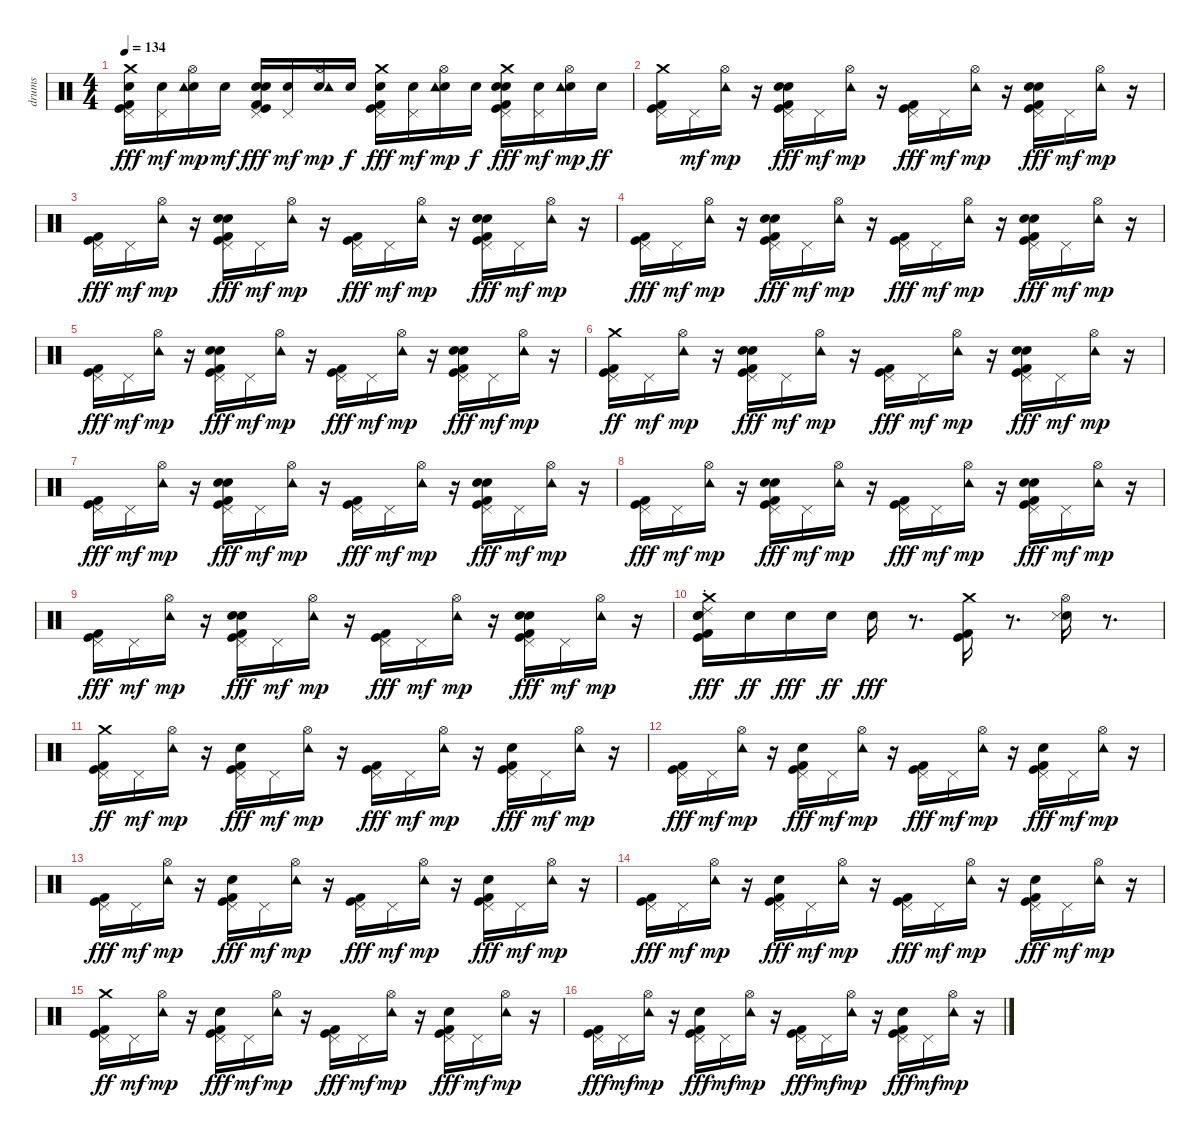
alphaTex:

\track ("drums" "drums") {instrument percussion}
\staff {score}
\articulation defaults
\ts (4 4)
\tempo 134
\clef neutral
\ks c
("Crash medium (hit)" "Electric Snare (hit)" "Kick (hit)" "Kick (hit) 2" "Pedal Hi-Hat (hit)").16{dy fff} ("Electric Snare (hit)" "Pedal Hi-Hat (hit)").16{dy mf} ("Electric Snare (hit)" "Hi-Hat (open)" "Tambourine (hit)").16{dy mp} "Electric Snare (hit)".16{dy mf} ("Electric Snare (hit)" "Kick (hit)" "Kick (hit) 2" "Hand Clap (hit)" "Pedal Hi-Hat (hit)").16{dy fff} ("Electric Snare (hit)" "Pedal Hi-Hat (hit)").16{dy mf} ("Electric Snare (hit)" "Hi-Hat (open)" "Tambourine (hit)").16{dy mp} "Electric Snare (hit)".16{dy f} ("Crash medium (hit)" "Electric Snare (hit)" "Kick (hit)" "Kick (hit) 2" "Pedal Hi-Hat (hit)").16{dy fff} ("Electric Snare (hit)" "Pedal Hi-Hat (hit)").16{dy mf} ("Electric Snare (hit)" "Hi-Hat (open)" "Tambourine (hit)").16{dy mp} "Electric Snare (hit)".16{dy f} ("Crash medium (hit)" "Electric Snare (hit)" "Kick (hit)" "Kick (hit) 2" "Hand Clap (hit)" "Pedal Hi-Hat (hit)").16{dy fff} ("Electric Snare (hit)" "Pedal Hi-Hat (hit)").16{dy mf} ("Electric Snare (hit)" "Hi-Hat (open)" "Tambourine (hit)").16{dy mp} "Electric Snare (hit)".16{dy ff} |
("Kick (hit)" "Kick (hit) 2" "Pedal Hi-Hat (hit)" "Crash medium (hit)").16 "Pedal Hi-Hat (hit)".16{dy mf} ("Hi-Hat (open)" "Tambourine (hit)").16{dy mp} r.16 ("Electric Snare (hit)" "Kick (hit)" "Kick (hit) 2" "Hand Clap (hit)" "Pedal Hi-Hat (hit)").16{dy fff} "Pedal Hi-Hat (hit)".16{dy mf} ("Hi-Hat (open)" "Tambourine (hit)").16{dy mp} r.16 ("Kick (hit)" "Kick (hit) 2" "Pedal Hi-Hat (hit)").16{dy fff} "Pedal Hi-Hat (hit)".16{dy mf} ("Hi-Hat (open)" "Tambourine (hit)").16{dy mp} r.16 ("Electric Snare (hit)" "Kick (hit)" "Kick (hit) 2" "Hand Clap (hit)" "Pedal Hi-Hat (hit)").16{dy fff} "Pedal Hi-Hat (hit)".16{dy mf} ("Hi-Hat (open)" "Tambourine (hit)").16{dy mp} r.16 |
("Kick (hit)" "Kick (hit) 2" "Pedal Hi-Hat (hit)").16{dy fff} "Pedal Hi-Hat (hit)".16{dy mf} ("Hi-Hat (open)" "Tambourine (hit)").16{dy mp} r.16 ("Electric Snare (hit)" "Kick (hit)" "Kick (hit) 2" "Hand Clap (hit)" "Pedal Hi-Hat (hit)").16{dy fff} "Pedal Hi-Hat (hit)".16{dy mf} ("Hi-Hat (open)" "Tambourine (hit)").16{dy mp} r.16 ("Kick (hit)" "Kick (hit) 2" "Pedal Hi-Hat (hit)").16{dy fff} "Pedal Hi-Hat (hit)".16{dy mf} ("Hi-Hat (open)" "Tambourine (hit)").16{dy mp} r.16 ("Electric Snare (hit)" "Kick (hit)" "Kick (hit) 2" "Hand Clap (hit)" "Pedal Hi-Hat (hit)").16{dy fff} "Pedal Hi-Hat (hit)".16{dy mf} ("Hi-Hat (open)" "Tambourine (hit)").16{dy mp} r.16 |
("Kick (hit)" "Kick (hit) 2" "Pedal Hi-Hat (hit)").16{dy fff} "Pedal Hi-Hat (hit)".16{dy mf} ("Hi-Hat (open)" "Tambourine (hit)").16{dy mp} r.16 ("Electric Snare (hit)" "Kick (hit)" "Kick (hit) 2" "Hand Clap (hit)" "Pedal Hi-Hat (hit)").16{dy fff} "Pedal Hi-Hat (hit)".16{dy mf} ("Hi-Hat (open)" "Tambourine (hit)").16{dy mp} r.16 ("Kick (hit)" "Kick (hit) 2" "Pedal Hi-Hat (hit)").16{dy fff} "Pedal Hi-Hat (hit)".16{dy mf} ("Hi-Hat (open)" "Tambourine (hit)").16{dy mp} r.16 ("Electric Snare (hit)" "Kick (hit)" "Kick (hit) 2" "Hand Clap (hit)" "Pedal Hi-Hat (hit)").16{dy fff} "Pedal Hi-Hat (hit)".16{dy mf} ("Hi-Hat (open)" "Tambourine (hit)").16{dy mp} r.16 |
("Kick (hit)" "Kick (hit) 2" "Pedal Hi-Hat (hit)").16{dy fff} "Pedal Hi-Hat (hit)".16{dy mf} ("Hi-Hat (open)" "Tambourine (hit)").16{dy mp} r.16 ("Electric Snare (hit)" "Kick (hit)" "Kick (hit) 2" "Hand Clap (hit)" "Pedal Hi-Hat (hit)").16{dy fff} "Pedal Hi-Hat (hit)".16{dy mf} ("Hi-Hat (open)" "Tambourine (hit)").16{dy mp} r.16 ("Kick (hit)" "Kick (hit) 2" "Pedal Hi-Hat (hit)").16{dy fff} "Pedal Hi-Hat (hit)".16{dy mf} ("Hi-Hat (open)" "Tambourine (hit)").16{dy mp} r.16 ("Electric Snare (hit)" "Kick (hit)" "Kick (hit) 2" "Hand Clap (hit)" "Pedal Hi-Hat (hit)").16{dy fff} "Pedal Hi-Hat (hit)".16{dy mf} ("Hi-Hat (open)" "Tambourine (hit)").16{dy mp} r.16 |
("Kick (hit)" "Kick (hit) 2" "Pedal Hi-Hat (hit)" "Crash medium (hit)").16{dy ff} "Pedal Hi-Hat (hit)".16{dy mf} ("Hi-Hat (open)" "Tambourine (hit)").16{dy mp} r.16 ("Electric Snare (hit)" "Kick (hit)" "Kick (hit) 2" "Hand Clap (hit)" "Pedal Hi-Hat (hit)").16{dy fff} "Pedal Hi-Hat (hit)".16{dy mf} ("Hi-Hat (open)" "Tambourine (hit)").16{dy mp} r.16 ("Kick (hit)" "Kick (hit) 2" "Pedal Hi-Hat (hit)").16{dy fff} "Pedal Hi-Hat (hit)".16{dy mf} ("Hi-Hat (open)" "Tambourine (hit)").16{dy mp} r.16 ("Electric Snare (hit)" "Kick (hit)" "Kick (hit) 2" "Hand Clap (hit)" "Pedal Hi-Hat (hit)").16{dy fff} "Pedal Hi-Hat (hit)".16{dy mf} ("Hi-Hat (open)" "Tambourine (hit)").16{dy mp} r.16 |
("Kick (hit)" "Kick (hit) 2" "Pedal Hi-Hat (hit)").16{dy fff} "Pedal Hi-Hat (hit)".16{dy mf} ("Hi-Hat (open)" "Tambourine (hit)").16{dy mp} r.16 ("Electric Snare (hit)" "Kick (hit)" "Kick (hit) 2" "Hand Clap (hit)" "Pedal Hi-Hat (hit)").16{dy fff} "Pedal Hi-Hat (hit)".16{dy mf} ("Hi-Hat (open)" "Tambourine (hit)").16{dy mp} r.16 ("Kick (hit)" "Kick (hit) 2" "Pedal Hi-Hat (hit)").16{dy fff} "Pedal Hi-Hat (hit)".16{dy mf} ("Hi-Hat (open)" "Tambourine (hit)").16{dy mp} r.16 ("Electric Snare (hit)" "Kick (hit)" "Kick (hit) 2" "Hand Clap (hit)" "Pedal Hi-Hat (hit)").16{dy fff} "Pedal Hi-Hat (hit)".16{dy mf} ("Hi-Hat (open)" "Tambourine (hit)").16{dy mp} r.16 |
("Kick (hit)" "Kick (hit) 2" "Pedal Hi-Hat (hit)").16{dy fff} "Pedal Hi-Hat (hit)".16{dy mf} ("Hi-Hat (open)" "Tambourine (hit)").16{dy mp} r.16 ("Electric Snare (hit)" "Kick (hit)" "Kick (hit) 2" "Hand Clap (hit)" "Pedal Hi-Hat (hit)").16{dy fff} "Pedal Hi-Hat (hit)".16{dy mf} ("Hi-Hat (open)" "Tambourine (hit)").16{dy mp} r.16 ("Kick (hit)" "Kick (hit) 2" "Pedal Hi-Hat (hit)").16{dy fff} "Pedal Hi-Hat (hit)".16{dy mf} ("Hi-Hat (open)" "Tambourine (hit)").16{dy mp} r.16 ("Electric Snare (hit)" "Kick (hit)" "Kick (hit) 2" "Hand Clap (hit)" "Pedal Hi-Hat (hit)").16{dy fff} "Pedal Hi-Hat (hit)".16{dy mf} ("Hi-Hat (open)" "Tambourine (hit)").16{dy mp} r.16 |
("Kick (hit)" "Kick (hit) 2" "Pedal Hi-Hat (hit)").16{dy fff} "Pedal Hi-Hat (hit)".16{dy mf} ("Hi-Hat (open)" "Tambourine (hit)").16{dy mp} r.16 ("Electric Snare (hit)" "Kick (hit)" "Kick (hit) 2" "Hand Clap (hit)" "Pedal Hi-Hat (hit)").16{dy fff} "Pedal Hi-Hat (hit)".16{dy mf} ("Hi-Hat (open)" "Tambourine (hit)").16{dy mp} r.16 ("Kick (hit)" "Kick (hit) 2" "Pedal Hi-Hat (hit)").16{dy fff} "Pedal Hi-Hat (hit)".16{dy mf} ("Hi-Hat (open)" "Tambourine (hit)").16{dy mp} r.16 ("Electric Snare (hit)" "Kick (hit)" "Kick (hit) 2" "Hand Clap (hit)" "Pedal Hi-Hat (hit)").16{dy fff} "Pedal Hi-Hat (hit)".16{dy mf} ("Hi-Hat (open)" "Tambourine (hit)").16{dy mp} r.16 |
("Snare (hit)" "Ride (choke) 2" "Crash medium (hit)" "Electric Snare (hit)" "Kick (hit) 2" "Kick (hit)").16{dy fff} "Snare (hit)".16{dy ff} "Snare (hit)".16{dy fff} "Snare (hit)".16{dy ff} "Snare (hit)".16{dy fff} r.8{d} ("Crash medium (hit)" "Kick (hit) 2" "Kick (hit)").16 r.8{d} ("Hi-Hat (open)" "Hand Clap (hit)" "Snare (side stick) 3").16 r.8{d} |
("Kick (hit)" "Kick (hit) 2" "Pedal Hi-Hat (hit)" "Crash medium (hit)").16{dy ff} "Pedal Hi-Hat (hit)".16{dy mf} ("Hi-Hat (open)" "Tambourine (hit)").16{dy mp} r.16 ("Kick (hit)" "Kick (hit) 2" "Hand Clap (hit)" "Pedal Hi-Hat (hit)").16{dy fff} "Pedal Hi-Hat (hit)".16{dy mf} ("Hi-Hat (open)" "Tambourine (hit)").16{dy mp} r.16 ("Kick (hit)" "Kick (hit) 2" "Pedal Hi-Hat (hit)").16{dy fff} "Pedal Hi-Hat (hit)".16{dy mf} ("Hi-Hat (open)" "Tambourine (hit)").16{dy mp} r.16 ("Kick (hit)" "Kick (hit) 2" "Hand Clap (hit)" "Pedal Hi-Hat (hit)").16{dy fff} "Pedal Hi-Hat (hit)".16{dy mf} ("Hi-Hat (open)" "Tambourine (hit)").16{dy mp} r.16 |
("Kick (hit)" "Kick (hit) 2" "Pedal Hi-Hat (hit)").16{dy fff} "Pedal Hi-Hat (hit)".16{dy mf} ("Hi-Hat (open)" "Tambourine (hit)").16{dy mp} r.16 ("Kick (hit)" "Kick (hit) 2" "Hand Clap (hit)" "Pedal Hi-Hat (hit)").16{dy fff} "Pedal Hi-Hat (hit)".16{dy mf} ("Hi-Hat (open)" "Tambourine (hit)").16{dy mp} r.16 ("Kick (hit)" "Kick (hit) 2" "Pedal Hi-Hat (hit)").16{dy fff} "Pedal Hi-Hat (hit)".16{dy mf} ("Hi-Hat (open)" "Tambourine (hit)").16{dy mp} r.16 ("Kick (hit)" "Kick (hit) 2" "Hand Clap (hit)" "Pedal Hi-Hat (hit)").16{dy fff} "Pedal Hi-Hat (hit)".16{dy mf} ("Hi-Hat (open)" "Tambourine (hit)").16{dy mp} r.16 |
("Kick (hit)" "Kick (hit) 2" "Pedal Hi-Hat (hit)").16{dy fff} "Pedal Hi-Hat (hit)".16{dy mf} ("Hi-Hat (open)" "Tambourine (hit)").16{dy mp} r.16 ("Kick (hit)" "Kick (hit) 2" "Hand Clap (hit)" "Pedal Hi-Hat (hit)").16{dy fff} "Pedal Hi-Hat (hit)".16{dy mf} ("Hi-Hat (open)" "Tambourine (hit)").16{dy mp} r.16 ("Kick (hit)" "Kick (hit) 2" "Pedal Hi-Hat (hit)").16{dy fff} "Pedal Hi-Hat (hit)".16{dy mf} ("Hi-Hat (open)" "Tambourine (hit)").16{dy mp} r.16 ("Kick (hit)" "Kick (hit) 2" "Hand Clap (hit)" "Pedal Hi-Hat (hit)").16{dy fff} "Pedal Hi-Hat (hit)".16{dy mf} ("Hi-Hat (open)" "Tambourine (hit)").16{dy mp} r.16 |
("Kick (hit)" "Kick (hit) 2" "Pedal Hi-Hat (hit)").16{dy fff} "Pedal Hi-Hat (hit)".16{dy mf} ("Hi-Hat (open)" "Tambourine (hit)").16{dy mp} r.16 ("Kick (hit)" "Kick (hit) 2" "Hand Clap (hit)" "Pedal Hi-Hat (hit)").16{dy fff} "Pedal Hi-Hat (hit)".16{dy mf} ("Hi-Hat (open)" "Tambourine (hit)").16{dy mp} r.16 ("Kick (hit)" "Kick (hit) 2" "Pedal Hi-Hat (hit)").16{dy fff} "Pedal Hi-Hat (hit)".16{dy mf} ("Hi-Hat (open)" "Tambourine (hit)").16{dy mp} r.16 ("Kick (hit)" "Kick (hit) 2" "Hand Clap (hit)" "Pedal Hi-Hat (hit)").16{dy fff} "Pedal Hi-Hat (hit)".16{dy mf} ("Hi-Hat (open)" "Tambourine (hit)").16{dy mp} r.16 |
("Kick (hit)" "Kick (hit) 2" "Pedal Hi-Hat (hit)" "Crash medium (hit)").16{dy ff} "Pedal Hi-Hat (hit)".16{dy mf} ("Hi-Hat (open)" "Tambourine (hit)").16{dy mp} r.16 ("Kick (hit)" "Kick (hit) 2" "Hand Clap (hit)" "Pedal Hi-Hat (hit)").16{dy fff} "Pedal Hi-Hat (hit)".16{dy mf} ("Hi-Hat (open)" "Tambourine (hit)").16{dy mp} r.16 ("Kick (hit)" "Kick (hit) 2" "Pedal Hi-Hat (hit)").16{dy fff} "Pedal Hi-Hat (hit)".16{dy mf} ("Hi-Hat (open)" "Tambourine (hit)").16{dy mp} r.16 ("Kick (hit)" "Kick (hit) 2" "Hand Clap (hit)" "Pedal Hi-Hat (hit)").16{dy fff} "Pedal Hi-Hat (hit)".16{dy mf} ("Hi-Hat (open)" "Tambourine (hit)").16{dy mp} r.16 |
("Kick (hit)" "Kick (hit) 2" "Pedal Hi-Hat (hit)").16{dy fff} "Pedal Hi-Hat (hit)".16{dy mf} ("Hi-Hat (open)" "Tambourine (hit)").16{dy mp} r.16 ("Kick (hit)" "Kick (hit) 2" "Hand Clap (hit)" "Pedal Hi-Hat (hit)").16{dy fff} "Pedal Hi-Hat (hit)".16{dy mf} ("Hi-Hat (open)" "Tambourine (hit)").16{dy mp} r.16 ("Kick (hit)" "Kick (hit) 2" "Pedal Hi-Hat (hit)").16{dy fff} "Pedal Hi-Hat (hit)".16{dy mf} ("Hi-Hat (open)" "Tambourine (hit)").16{dy mp} r.16 ("Kick (hit)" "Kick (hit) 2" "Hand Clap (hit)" "Pedal Hi-Hat (hit)").16{dy fff} "Pedal Hi-Hat (hit)".16{dy mf} ("Hi-Hat (open)" "Tambourine (hit)").16{dy mp} r.16
